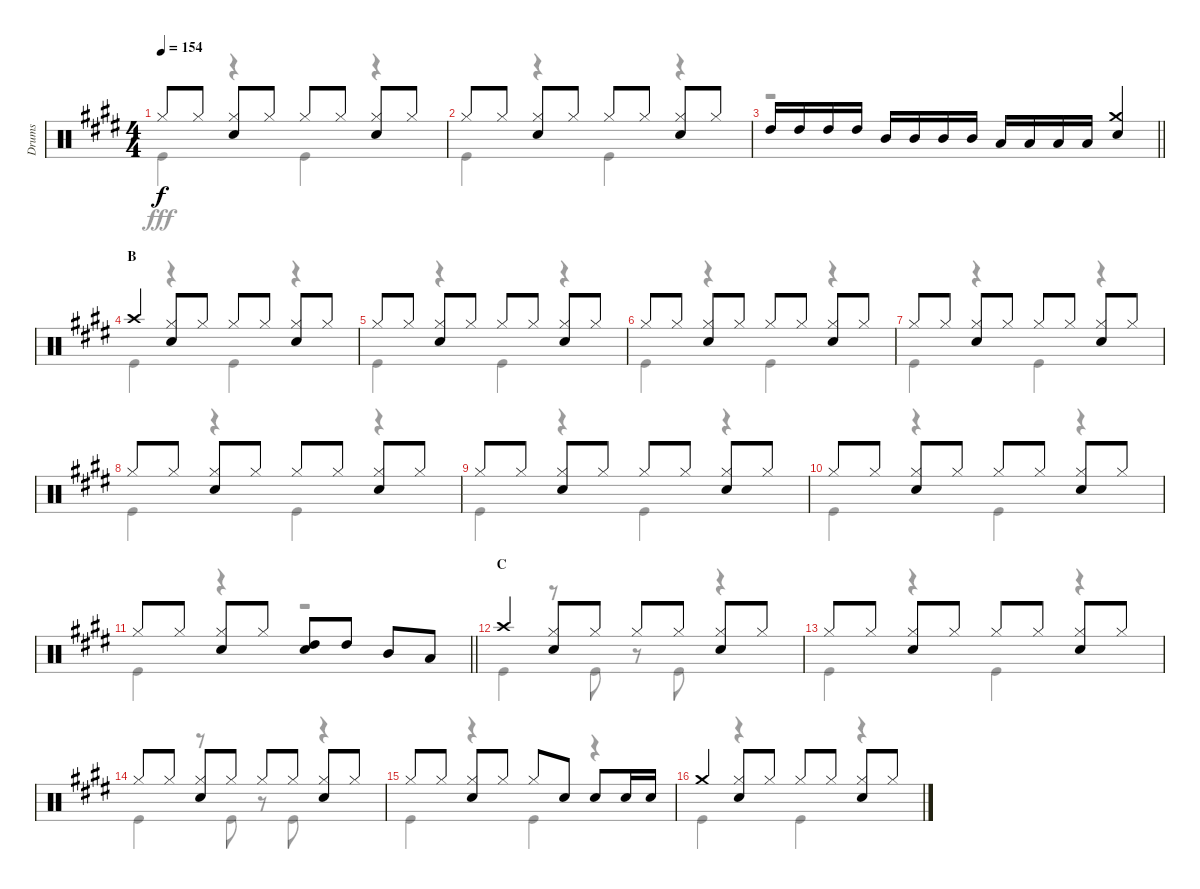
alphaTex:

\track ("Drums" "Drums") {instrument percussion}
\staff {score}
\articulation defaults
\voice
\ts (4 4)
\tempo 154
\clef neutral
\ks e "Hi-Hat (closed)".8{dy f} "Hi-Hat (closed)".8
("Hi-Hat (closed)" "Snare (hit) 2").8 "Hi-Hat (closed)".8 "Hi-Hat (closed)".8 "Hi-Hat (closed)".8 ("Hi-Hat (closed)" "Snare (hit) 2").8 "Hi-Hat (closed)".8 |
"Hi-Hat (closed)".8 "Hi-Hat (closed)".8 ("Hi-Hat (closed)" "Snare (hit) 2").8 "Hi-Hat (closed)".8 "Hi-Hat (closed)".8 "Hi-Hat (closed)".8 ("Hi-Hat (closed)" "Snare (hit) 2").8 "Hi-Hat (closed)".8 |
\barLineRight lightlight "High Tom (hit)".16 "High Tom (hit)".16 "High Tom (hit)".16 "High Tom (hit)".16 "Mid Tom (hit)".16 "Mid Tom (hit)".16 "Mid Tom (hit)".16 "Mid Tom (hit)".16 "Low Tom (hit)".16 "Low Tom (hit)".16 "Low Tom (hit)".16 "Low Tom (hit)".16
("Crash medium (hit)" "Snare (hit) 2").4 |
\section ("" "B")
"Crash high (hit)".4 ("Hi-Hat (closed)" "Snare (hit) 2").8 "Hi-Hat (closed)".8 "Hi-Hat (closed)".8 "Hi-Hat (closed)".8 ("Hi-Hat (closed)" "Snare (hit) 2").8 "Hi-Hat (closed)".8 |
"Hi-Hat (closed)".8 "Hi-Hat (closed)".8 ("Hi-Hat (closed)" "Snare (hit) 2").8 "Hi-Hat (closed)".8 "Hi-Hat (closed)".8 "Hi-Hat (closed)".8 ("Hi-Hat (closed)" "Snare (hit) 2").8 "Hi-Hat (closed)".8 |
"Hi-Hat (closed)".8 "Hi-Hat (closed)".8 ("Hi-Hat (closed)" "Snare (hit) 2").8 "Hi-Hat (closed)".8 "Hi-Hat (closed)".8 "Hi-Hat (closed)".8 ("Hi-Hat (closed)" "Snare (hit) 2").8 "Hi-Hat (closed)".8 |
"Hi-Hat (closed)".8 "Hi-Hat (closed)".8 ("Hi-Hat (closed)" "Snare (hit) 2").8 "Hi-Hat (closed)".8 "Hi-Hat (closed)".8 "Hi-Hat (closed)".8 ("Hi-Hat (closed)" "Snare (hit) 2").8 "Hi-Hat (closed)".8 |
"Hi-Hat (closed)".8 "Hi-Hat (closed)".8 ("Hi-Hat (closed)" "Snare (hit) 2").8 "Hi-Hat (closed)".8 "Hi-Hat (closed)".8 "Hi-Hat (closed)".8 ("Hi-Hat (closed)" "Snare (hit) 2").8 "Hi-Hat (closed)".8 |
"Hi-Hat (closed)".8 "Hi-Hat (closed)".8 ("Hi-Hat (closed)" "Snare (hit) 2").8 "Hi-Hat (closed)".8 "Hi-Hat (closed)".8 "Hi-Hat (closed)".8 ("Hi-Hat (closed)" "Snare (hit) 2").8 "Hi-Hat (closed)".8 |
"Hi-Hat (closed)".8 "Hi-Hat (closed)".8 ("Hi-Hat (closed)" "Snare (hit) 2").8 "Hi-Hat (closed)".8 "Hi-Hat (closed)".8 "Hi-Hat (closed)".8 ("Hi-Hat (closed)" "Snare (hit) 2").8 "Hi-Hat (closed)".8 |
\barLineRight lightlight "Hi-Hat (closed)".8 "Hi-Hat (closed)".8
("Hi-Hat (closed)" "Snare (hit) 2").8 "Hi-Hat (closed)".8 ("High Tom (hit)" "Snare (hit) 2").8 "High Tom (hit)".8 "Mid Tom (hit)".8 "Low Tom (hit)".8 |
\section ("" "C")
"Crash high (hit)".4 ("Hi-Hat (closed)" "Snare (hit) 2").8 "Hi-Hat (closed)".8 "Hi-Hat (closed)".8 "Hi-Hat (closed)".8 ("Hi-Hat (closed)" "Snare (hit) 2").8 "Hi-Hat (closed)".8 |
"Hi-Hat (closed)".8 "Hi-Hat (closed)".8 ("Hi-Hat (closed)" "Snare (hit) 2").8 "Hi-Hat (closed)".8 "Hi-Hat (closed)".8 "Hi-Hat (closed)".8 ("Hi-Hat (closed)" "Snare (hit) 2").8 "Hi-Hat (closed)".8 |
"Hi-Hat (closed)".8 "Hi-Hat (closed)".8 ("Hi-Hat (closed)" "Snare (hit) 2").8 "Hi-Hat (closed)".8 "Hi-Hat (closed)".8 "Hi-Hat (closed)".8 ("Hi-Hat (closed)" "Snare (hit) 2").8 "Hi-Hat (closed)".8 |
"Hi-Hat (closed)".8 "Hi-Hat (closed)".8 ("Hi-Hat (closed)" "Snare (hit) 2").8 "Hi-Hat (closed)".8 "Hi-Hat (closed)".8 "Snare (hit) 2".8 "Snare (hit) 2".8 "Snare (hit) 2".16 "Snare (hit) 2".16 |
"Crash medium (hit)".4 ("Hi-Hat (closed)" "Snare (hit) 2").8 "Hi-Hat (closed)".8 "Hi-Hat (closed)".8 "Hi-Hat (closed)".8 ("Hi-Hat (closed)" "Snare (hit) 2").8 "Hi-Hat (closed)".8
\voice
\clef neutral
\ottava regular
\simile none
\ks e "Kick (hit)".4{dy fff}
r.4 "Kick (hit)".4 r.4 |
"Kick (hit)".4 r.4 "Kick (hit)".4 r.4 |
\barLineRight lightlight
r.1 |
"Kick (hit)".4 r.4 "Kick (hit)".4 r.4 |
"Kick (hit)".4 r.4 "Kick (hit)".4 r.4 |
"Kick (hit)".4 r.4 "Kick (hit)".4 r.4 |
"Kick (hit)".4 r.4 "Kick (hit)".4 r.4 |
"Kick (hit)".4 r.4 "Kick (hit)".4 r.4 |
"Kick (hit)".4 r.4 "Kick (hit)".4 r.4 |
"Kick (hit)".4 r.4 "Kick (hit)".4 r.4 |
\barLineRight lightlight "Kick (hit)".4
r.4 r.2 |
"Kick (hit)".4 r.8 "Kick (hit)".8 r.8 "Kick (hit)".8 r.4 |
"Kick (hit)".4 r.4 "Kick (hit)".4 r.4 |
"Kick (hit)".4 r.8 "Kick (hit)".8 r.8 "Kick (hit)".8 r.4 |
"Kick (hit)".4 r.4 "Kick (hit)".4 r.4 |
"Kick (hit)".4 r.4 "Kick (hit)".4 r.4
